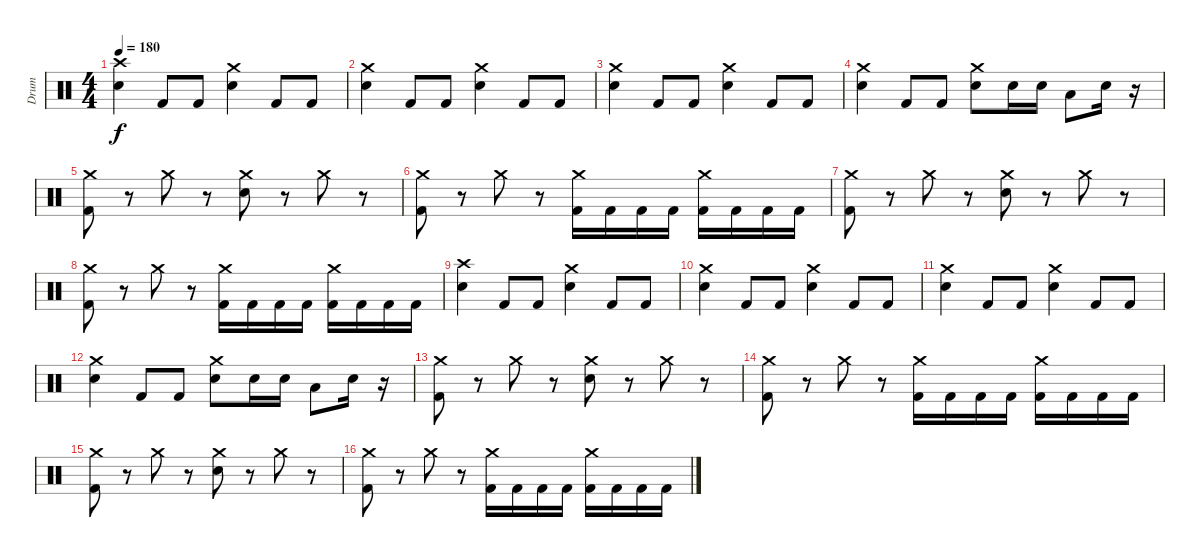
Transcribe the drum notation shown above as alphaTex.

\track ("Drum" "Drum") {instrument percussion}
\staff {score}
\articulation defaults
\ts (4 4)
\tempo 180
\clef neutral
\ks c
("Crash high (hit)" "Electric Snare (hit)").4{dy f} "Kick (hit) 2".8 "Kick (hit) 2".8 ("Crash medium (hit)" "Electric Snare (hit)").4 "Kick (hit) 2".8 "Kick (hit) 2".8 |
("Crash medium (hit)" "Electric Snare (hit)").4 "Kick (hit) 2".8 "Kick (hit) 2".8 ("Crash medium (hit)" "Electric Snare (hit)").4 "Kick (hit) 2".8 "Kick (hit) 2".8 |
("Crash medium (hit)" "Electric Snare (hit)").4 "Kick (hit) 2".8 "Kick (hit) 2".8 ("Crash medium (hit)" "Electric Snare (hit)").4 "Kick (hit) 2".8 "Kick (hit) 2".8 |
("Crash medium (hit)" "Electric Snare (hit)").4 "Kick (hit) 2".8 "Kick (hit) 2".8 ("Crash medium (hit)" "Electric Snare (hit)").8 "Electric Snare (hit)".16 "Electric Snare (hit)".16 "Low Tom (hit)".8 "Electric Snare (hit)".16 r.16 |
("Crash medium (hit)" "Kick (hit) 2").8 r.8 "Crash medium (hit)".8 r.8 ("Crash medium (hit)" "Electric Snare (hit)").8 r.8 "Crash medium (hit)".8 r.8 |
("Crash medium (hit)" "Kick (hit) 2").8 r.8 "Crash medium (hit)".8 r.8 ("Crash medium (hit)" "Kick (hit) 2").16 "Kick (hit) 2".16 "Kick (hit) 2".16 "Kick (hit) 2".16 ("Crash medium (hit)" "Kick (hit) 2").16 "Kick (hit) 2".16 "Kick (hit) 2".16 "Kick (hit) 2".16 |
("Crash medium (hit)" "Kick (hit) 2").8 r.8 "Crash medium (hit)".8 r.8 ("Crash medium (hit)" "Electric Snare (hit)").8 r.8 "Crash medium (hit)".8 r.8 |
("Crash medium (hit)" "Kick (hit) 2").8 r.8 "Crash medium (hit)".8 r.8 ("Crash medium (hit)" "Kick (hit) 2").16 "Kick (hit) 2".16 "Kick (hit) 2".16 "Kick (hit) 2".16 ("Crash medium (hit)" "Kick (hit) 2").16 "Kick (hit) 2".16 "Kick (hit) 2".16 "Kick (hit) 2".16 |
("Crash high (hit)" "Electric Snare (hit)").4 "Kick (hit) 2".8 "Kick (hit) 2".8 ("Crash medium (hit)" "Electric Snare (hit)").4 "Kick (hit) 2".8 "Kick (hit) 2".8 |
("Crash medium (hit)" "Electric Snare (hit)").4 "Kick (hit) 2".8 "Kick (hit) 2".8 ("Crash medium (hit)" "Electric Snare (hit)").4 "Kick (hit) 2".8 "Kick (hit) 2".8 |
("Crash medium (hit)" "Electric Snare (hit)").4 "Kick (hit) 2".8 "Kick (hit) 2".8 ("Crash medium (hit)" "Electric Snare (hit)").4 "Kick (hit) 2".8 "Kick (hit) 2".8 |
("Crash medium (hit)" "Electric Snare (hit)").4 "Kick (hit) 2".8 "Kick (hit) 2".8 ("Crash medium (hit)" "Electric Snare (hit)").8 "Electric Snare (hit)".16 "Electric Snare (hit)".16 "Low Tom (hit)".8 "Electric Snare (hit)".16 r.16 |
("Crash medium (hit)" "Kick (hit) 2").8 r.8 "Crash medium (hit)".8 r.8 ("Crash medium (hit)" "Electric Snare (hit)").8 r.8 "Crash medium (hit)".8 r.8 |
("Crash medium (hit)" "Kick (hit) 2").8 r.8 "Crash medium (hit)".8 r.8 ("Crash medium (hit)" "Kick (hit) 2").16 "Kick (hit) 2".16 "Kick (hit) 2".16 "Kick (hit) 2".16 ("Crash medium (hit)" "Kick (hit) 2").16 "Kick (hit) 2".16 "Kick (hit) 2".16 "Kick (hit) 2".16 |
("Crash medium (hit)" "Kick (hit) 2").8 r.8 "Crash medium (hit)".8 r.8 ("Crash medium (hit)" "Electric Snare (hit)").8 r.8 "Crash medium (hit)".8 r.8 |
("Crash medium (hit)" "Kick (hit) 2").8 r.8 "Crash medium (hit)".8 r.8 ("Crash medium (hit)" "Kick (hit) 2").16 "Kick (hit) 2".16 "Kick (hit) 2".16 "Kick (hit) 2".16 ("Crash medium (hit)" "Kick (hit) 2").16 "Kick (hit) 2".16 "Kick (hit) 2".16 "Kick (hit) 2".16
